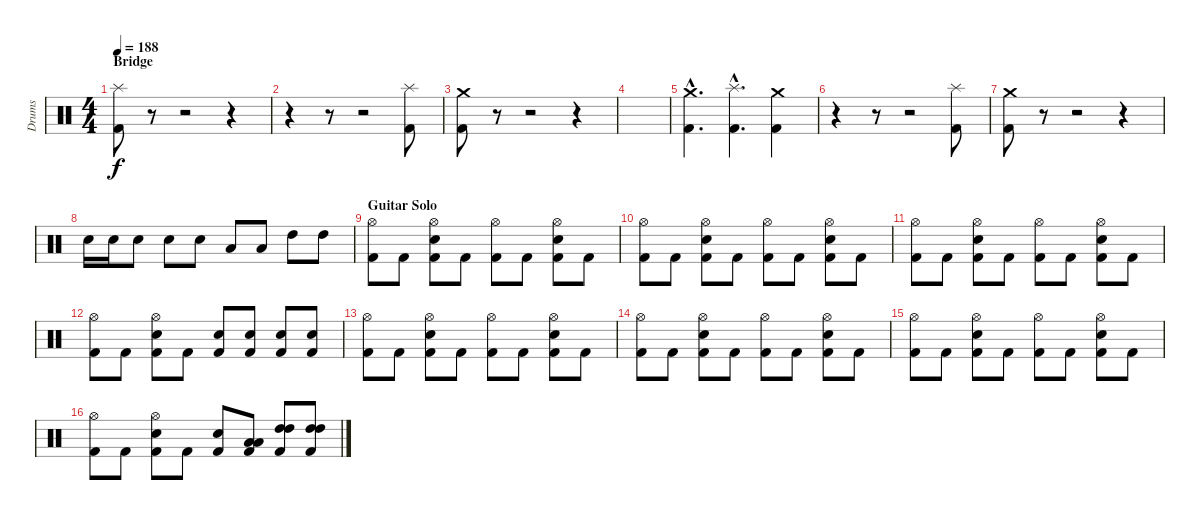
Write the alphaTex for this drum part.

\track ("Drums" "Drums") {instrument percussion}
\staff {score}
\articulation defaults
\ts (4 4)
\section ("" "Bridge")
\tempo 188
\clef neutral
\ks c
("Kick (hit) 2" "Splash (hit)").8{dy f} r.8 r.2 r.4 |
r.4 r.8 r.2 ("Kick (hit) 2" "Splash (hit)").8 |
("Kick (hit) 2" "Crash medium (hit)").8 r.8 r.2 r.4 |
|
("Kick (hit) 2"{hac} "Crash medium (hit)"{hac}).4{d} ("Kick (hit) 2"{hac} "Splash (hit)"{hac}).4{d} ("Kick (hit) 2" "Crash medium (hit)").4 |
r.4 r.8 r.2 ("Kick (hit) 2" "Splash (hit)").8 |
("Kick (hit) 2" "Crash medium (hit)").8 r.8 r.2 r.4 |
"Snare (hit) 2".16 "Snare (hit) 2".16 "Snare (hit) 2".8 "Snare (hit) 2".8 "Snare (hit) 2".8 "Low Tom (hit)".8 "Low Tom (hit)".8 "High Tom (hit)".8 "High Tom (hit)".8 |
\section ("" "Guitar Solo")
("Kick (hit) 2" "Hi-Hat (open)").8 "Kick (hit) 2".8 ("Kick (hit) 2" "Snare (hit) 2" "Hi-Hat (open)").8 "Kick (hit) 2".8 ("Kick (hit) 2" "Hi-Hat (open)").8 "Kick (hit) 2".8 ("Kick (hit) 2" "Snare (hit) 2" "Hi-Hat (open)").8 "Kick (hit) 2".8 |
("Kick (hit) 2" "Hi-Hat (open)").8 "Kick (hit) 2".8 ("Kick (hit) 2" "Snare (hit) 2" "Hi-Hat (open)").8 "Kick (hit) 2".8 ("Kick (hit) 2" "Hi-Hat (open)").8 "Kick (hit) 2".8 ("Kick (hit) 2" "Snare (hit) 2" "Hi-Hat (open)").8 "Kick (hit) 2".8 |
("Kick (hit) 2" "Hi-Hat (open)").8 "Kick (hit) 2".8 ("Kick (hit) 2" "Snare (hit) 2" "Hi-Hat (open)").8 "Kick (hit) 2".8 ("Kick (hit) 2" "Hi-Hat (open)").8 "Kick (hit) 2".8 ("Kick (hit) 2" "Snare (hit) 2" "Hi-Hat (open)").8 "Kick (hit) 2".8 |
("Kick (hit) 2" "Hi-Hat (open)").8 "Kick (hit) 2".8 ("Kick (hit) 2" "Snare (hit) 2" "Hi-Hat (open)").8 "Kick (hit) 2".8 ("Kick (hit) 2" "Snare (hit) 2").8 ("Kick (hit) 2" "Snare (hit) 2").8 ("Kick (hit) 2" "Snare (hit) 2").8 ("Kick (hit) 2" "Snare (hit) 2").8 |
("Kick (hit) 2" "Hi-Hat (open)").8 "Kick (hit) 2".8 ("Kick (hit) 2" "Snare (hit) 2" "Hi-Hat (open)").8 "Kick (hit) 2".8 ("Kick (hit) 2" "Hi-Hat (open)").8 "Kick (hit) 2".8 ("Kick (hit) 2" "Snare (hit) 2" "Hi-Hat (open)").8 "Kick (hit) 2".8 |
("Kick (hit) 2" "Hi-Hat (open)").8 "Kick (hit) 2".8 ("Kick (hit) 2" "Snare (hit) 2" "Hi-Hat (open)").8 "Kick (hit) 2".8 ("Kick (hit) 2" "Hi-Hat (open)").8 "Kick (hit) 2".8 ("Kick (hit) 2" "Snare (hit) 2" "Hi-Hat (open)").8 "Kick (hit) 2".8 |
("Kick (hit) 2" "Hi-Hat (open)").8 "Kick (hit) 2".8 ("Kick (hit) 2" "Snare (hit) 2" "Hi-Hat (open)").8 "Kick (hit) 2".8 ("Kick (hit) 2" "Hi-Hat (open)").8 "Kick (hit) 2".8 ("Kick (hit) 2" "Snare (hit) 2" "Hi-Hat (open)").8 "Kick (hit) 2".8 |
("Kick (hit) 2" "Hi-Hat (open)").8 "Kick (hit) 2".8 ("Kick (hit) 2" "Snare (hit) 2" "Hi-Hat (open)").8 "Kick (hit) 2".8 ("Kick (hit) 2" "Snare (hit) 2").8 ("Kick (hit) 2" "Low Tom (hit)" "Low Tom (hit)").8 ("Kick (hit) 2" "High Tom (hit)" "High Tom (hit)").8 ("Kick (hit) 2" "High Tom (hit)" "High Tom (hit)").8
